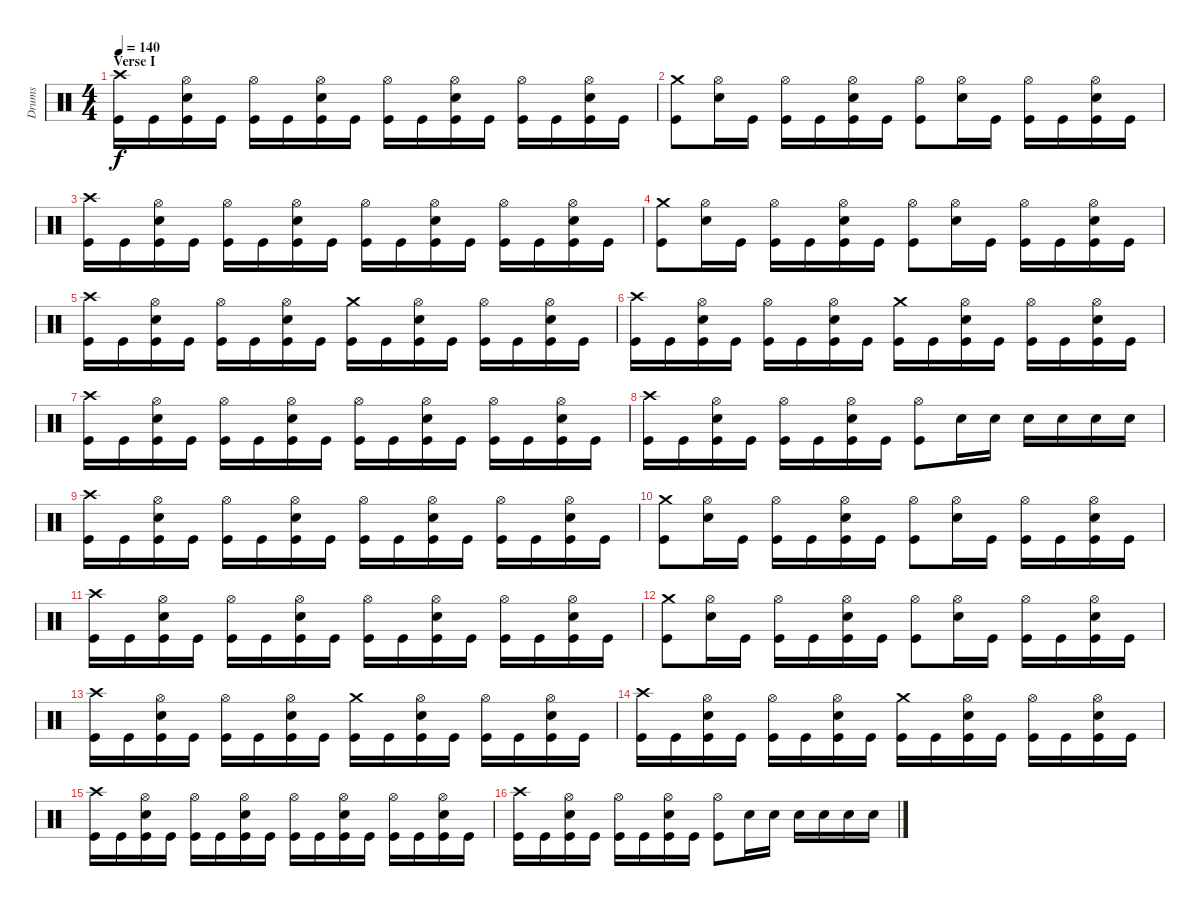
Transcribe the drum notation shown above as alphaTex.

\track ("Drums" "Drums") {instrument percussion}
\staff {score}
\articulation defaults
\ts (4 4)
\section ("" "Verse I")
\tempo 140
\clef neutral
\ks c
("Crash high (hit)" "Kick (hit)").16{dy f} "Kick (hit)".16 ("Hi-Hat (open)" "Electric Snare (hit)" "Kick (hit)").16 "Kick (hit)".16 ("Hi-Hat (open)" "Kick (hit)").16 "Kick (hit)".16 ("Hi-Hat (open)" "Electric Snare (hit)" "Kick (hit)").16 "Kick (hit)".16 ("Hi-Hat (open)" "Kick (hit)").16 "Kick (hit)".16 ("Hi-Hat (open)" "Electric Snare (hit)" "Kick (hit)").16 "Kick (hit)".16 ("Hi-Hat (open)" "Kick (hit)").16 "Kick (hit)".16 ("Hi-Hat (open)" "Electric Snare (hit)" "Kick (hit)").16 "Kick (hit)".16 |
("Crash medium (hit)" "Kick (hit)").8 ("Hi-Hat (open)" "Electric Snare (hit)").16 "Kick (hit)".16 ("Hi-Hat (open)" "Kick (hit)").16 "Kick (hit)".16 ("Hi-Hat (open)" "Electric Snare (hit)" "Kick (hit)").16 "Kick (hit)".16 ("Hi-Hat (open)" "Kick (hit)").8 ("Hi-Hat (open)" "Electric Snare (hit)").16 "Kick (hit)".16 ("Hi-Hat (open)" "Kick (hit)").16 "Kick (hit)".16 ("Hi-Hat (open)" "Electric Snare (hit)" "Kick (hit)").16 "Kick (hit)".16 |
("Crash high (hit)" "Kick (hit)").16 "Kick (hit)".16 ("Hi-Hat (open)" "Electric Snare (hit)" "Kick (hit)").16 "Kick (hit)".16 ("Hi-Hat (open)" "Kick (hit)").16 "Kick (hit)".16 ("Hi-Hat (open)" "Electric Snare (hit)" "Kick (hit)").16 "Kick (hit)".16 ("Hi-Hat (open)" "Kick (hit)").16 "Kick (hit)".16 ("Hi-Hat (open)" "Electric Snare (hit)" "Kick (hit)").16 "Kick (hit)".16 ("Hi-Hat (open)" "Kick (hit)").16 "Kick (hit)".16 ("Hi-Hat (open)" "Electric Snare (hit)" "Kick (hit)").16 "Kick (hit)".16 |
("Crash medium (hit)" "Kick (hit)").8 ("Hi-Hat (open)" "Electric Snare (hit)").16 "Kick (hit)".16 ("Hi-Hat (open)" "Kick (hit)").16 "Kick (hit)".16 ("Hi-Hat (open)" "Electric Snare (hit)" "Kick (hit)").16 "Kick (hit)".16 ("Hi-Hat (open)" "Kick (hit)").8 ("Hi-Hat (open)" "Electric Snare (hit)").16 "Kick (hit)".16 ("Hi-Hat (open)" "Kick (hit)").16 "Kick (hit)".16 ("Hi-Hat (open)" "Electric Snare (hit)" "Kick (hit)").16 "Kick (hit)".16 |
("Crash high (hit)" "Kick (hit)").16 "Kick (hit)".16 ("Hi-Hat (open)" "Electric Snare (hit)" "Kick (hit)").16 "Kick (hit)".16 ("Hi-Hat (open)" "Kick (hit)").16 "Kick (hit)".16 ("Hi-Hat (open)" "Electric Snare (hit)" "Kick (hit)").16 "Kick (hit)".16 ("Crash medium (hit)" "Kick (hit)").16 "Kick (hit)".16 ("Hi-Hat (open)" "Electric Snare (hit)" "Kick (hit)").16 "Kick (hit)".16 ("Hi-Hat (open)" "Kick (hit)").16 "Kick (hit)".16 ("Hi-Hat (open)" "Electric Snare (hit)" "Kick (hit)").16 "Kick (hit)".16 |
("Crash high (hit)" "Kick (hit)").16 "Kick (hit)".16 ("Hi-Hat (open)" "Electric Snare (hit)" "Kick (hit)").16 "Kick (hit)".16 ("Hi-Hat (open)" "Kick (hit)").16 "Kick (hit)".16 ("Hi-Hat (open)" "Electric Snare (hit)" "Kick (hit)").16 "Kick (hit)".16 ("Crash medium (hit)" "Kick (hit)").16 "Kick (hit)".16 ("Hi-Hat (open)" "Electric Snare (hit)" "Kick (hit)").16 "Kick (hit)".16 ("Hi-Hat (open)" "Kick (hit)").16 "Kick (hit)".16 ("Hi-Hat (open)" "Electric Snare (hit)" "Kick (hit)").16 "Kick (hit)".16 |
("Crash high (hit)" "Kick (hit)").16 "Kick (hit)".16 ("Hi-Hat (open)" "Electric Snare (hit)" "Kick (hit)").16 "Kick (hit)".16 ("Hi-Hat (open)" "Kick (hit)").16 "Kick (hit)".16 ("Hi-Hat (open)" "Electric Snare (hit)" "Kick (hit)").16 "Kick (hit)".16 ("Hi-Hat (open)" "Kick (hit)").16 "Kick (hit)".16 ("Hi-Hat (open)" "Electric Snare (hit)" "Kick (hit)").16 "Kick (hit)".16 ("Hi-Hat (open)" "Kick (hit)").16 "Kick (hit)".16 ("Hi-Hat (open)" "Electric Snare (hit)" "Kick (hit)").16 "Kick (hit)".16 |
("Crash high (hit)" "Kick (hit)").16 "Kick (hit)".16 ("Hi-Hat (open)" "Electric Snare (hit)" "Kick (hit)").16 "Kick (hit)".16 ("Hi-Hat (open)" "Kick (hit)").16 "Kick (hit)".16 ("Hi-Hat (open)" "Electric Snare (hit)" "Kick (hit)").16 "Kick (hit)".16 ("Hi-Hat (open)" "Kick (hit)").8 "Electric Snare (hit)".16 "Electric Snare (hit)".16 "Electric Snare (hit)".16 "Electric Snare (hit)".16 "Electric Snare (hit)".16 "Electric Snare (hit)".16 |
("Crash high (hit)" "Kick (hit)").16 "Kick (hit)".16 ("Hi-Hat (open)" "Electric Snare (hit)" "Kick (hit)").16 "Kick (hit)".16 ("Hi-Hat (open)" "Kick (hit)").16 "Kick (hit)".16 ("Hi-Hat (open)" "Electric Snare (hit)" "Kick (hit)").16 "Kick (hit)".16 ("Hi-Hat (open)" "Kick (hit)").16 "Kick (hit)".16 ("Hi-Hat (open)" "Electric Snare (hit)" "Kick (hit)").16 "Kick (hit)".16 ("Hi-Hat (open)" "Kick (hit)").16 "Kick (hit)".16 ("Hi-Hat (open)" "Electric Snare (hit)" "Kick (hit)").16 "Kick (hit)".16 |
("Crash medium (hit)" "Kick (hit)").8 ("Hi-Hat (open)" "Electric Snare (hit)").16 "Kick (hit)".16 ("Hi-Hat (open)" "Kick (hit)").16 "Kick (hit)".16 ("Hi-Hat (open)" "Electric Snare (hit)" "Kick (hit)").16 "Kick (hit)".16 ("Hi-Hat (open)" "Kick (hit)").8 ("Hi-Hat (open)" "Electric Snare (hit)").16 "Kick (hit)".16 ("Hi-Hat (open)" "Kick (hit)").16 "Kick (hit)".16 ("Hi-Hat (open)" "Electric Snare (hit)" "Kick (hit)").16 "Kick (hit)".16 |
("Crash high (hit)" "Kick (hit)").16 "Kick (hit)".16 ("Hi-Hat (open)" "Electric Snare (hit)" "Kick (hit)").16 "Kick (hit)".16 ("Hi-Hat (open)" "Kick (hit)").16 "Kick (hit)".16 ("Hi-Hat (open)" "Electric Snare (hit)" "Kick (hit)").16 "Kick (hit)".16 ("Hi-Hat (open)" "Kick (hit)").16 "Kick (hit)".16 ("Hi-Hat (open)" "Electric Snare (hit)" "Kick (hit)").16 "Kick (hit)".16 ("Hi-Hat (open)" "Kick (hit)").16 "Kick (hit)".16 ("Hi-Hat (open)" "Electric Snare (hit)" "Kick (hit)").16 "Kick (hit)".16 |
("Crash medium (hit)" "Kick (hit)").8 ("Hi-Hat (open)" "Electric Snare (hit)").16 "Kick (hit)".16 ("Hi-Hat (open)" "Kick (hit)").16 "Kick (hit)".16 ("Hi-Hat (open)" "Electric Snare (hit)" "Kick (hit)").16 "Kick (hit)".16 ("Hi-Hat (open)" "Kick (hit)").8 ("Hi-Hat (open)" "Electric Snare (hit)").16 "Kick (hit)".16 ("Hi-Hat (open)" "Kick (hit)").16 "Kick (hit)".16 ("Hi-Hat (open)" "Electric Snare (hit)" "Kick (hit)").16 "Kick (hit)".16 |
("Crash high (hit)" "Kick (hit)").16 "Kick (hit)".16 ("Hi-Hat (open)" "Electric Snare (hit)" "Kick (hit)").16 "Kick (hit)".16 ("Hi-Hat (open)" "Kick (hit)").16 "Kick (hit)".16 ("Hi-Hat (open)" "Electric Snare (hit)" "Kick (hit)").16 "Kick (hit)".16 ("Crash medium (hit)" "Kick (hit)").16 "Kick (hit)".16 ("Hi-Hat (open)" "Electric Snare (hit)" "Kick (hit)").16 "Kick (hit)".16 ("Hi-Hat (open)" "Kick (hit)").16 "Kick (hit)".16 ("Hi-Hat (open)" "Electric Snare (hit)" "Kick (hit)").16 "Kick (hit)".16 |
("Crash high (hit)" "Kick (hit)").16 "Kick (hit)".16 ("Hi-Hat (open)" "Electric Snare (hit)" "Kick (hit)").16 "Kick (hit)".16 ("Hi-Hat (open)" "Kick (hit)").16 "Kick (hit)".16 ("Hi-Hat (open)" "Electric Snare (hit)" "Kick (hit)").16 "Kick (hit)".16 ("Crash medium (hit)" "Kick (hit)").16 "Kick (hit)".16 ("Hi-Hat (open)" "Electric Snare (hit)" "Kick (hit)").16 "Kick (hit)".16 ("Hi-Hat (open)" "Kick (hit)").16 "Kick (hit)".16 ("Hi-Hat (open)" "Electric Snare (hit)" "Kick (hit)").16 "Kick (hit)".16 |
("Crash high (hit)" "Kick (hit)").16 "Kick (hit)".16 ("Hi-Hat (open)" "Electric Snare (hit)" "Kick (hit)").16 "Kick (hit)".16 ("Hi-Hat (open)" "Kick (hit)").16 "Kick (hit)".16 ("Hi-Hat (open)" "Electric Snare (hit)" "Kick (hit)").16 "Kick (hit)".16 ("Hi-Hat (open)" "Kick (hit)").16 "Kick (hit)".16 ("Hi-Hat (open)" "Electric Snare (hit)" "Kick (hit)").16 "Kick (hit)".16 ("Hi-Hat (open)" "Kick (hit)").16 "Kick (hit)".16 ("Hi-Hat (open)" "Electric Snare (hit)" "Kick (hit)").16 "Kick (hit)".16 |
("Crash high (hit)" "Kick (hit)").16 "Kick (hit)".16 ("Hi-Hat (open)" "Electric Snare (hit)" "Kick (hit)").16 "Kick (hit)".16 ("Hi-Hat (open)" "Kick (hit)").16 "Kick (hit)".16 ("Hi-Hat (open)" "Electric Snare (hit)" "Kick (hit)").16 "Kick (hit)".16 ("Hi-Hat (open)" "Kick (hit)").8 "Electric Snare (hit)".16 "Electric Snare (hit)".16 "Electric Snare (hit)".16 "Electric Snare (hit)".16 "Electric Snare (hit)".16 "Electric Snare (hit)".16
